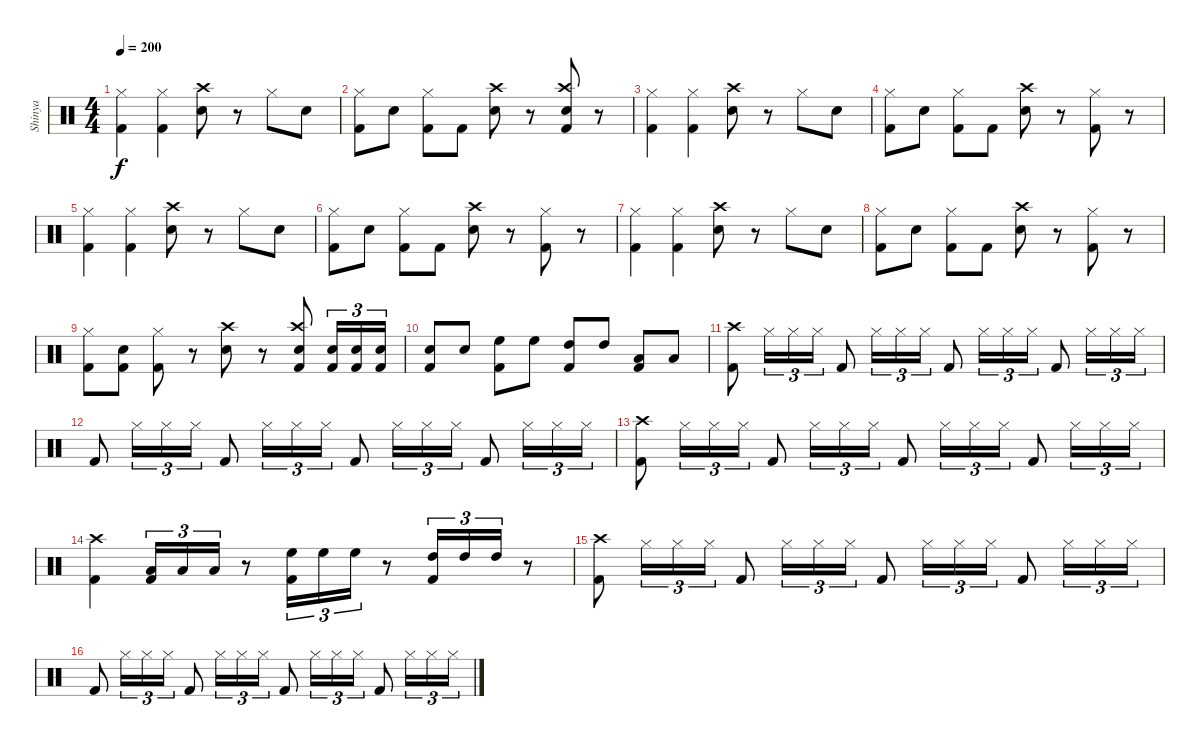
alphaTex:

\track ("Shinya" "Shinya") {instrument percussion}
\staff {score}
\articulation defaults
\ts (4 4)
\tempo 200
\clef neutral
\ks c
("Hi-Hat (closed)" "Kick (hit) 2").4{dy f} ("Hi-Hat (closed)" "Kick (hit) 2").4 ("Crash high (hit)" "Electric Snare (hit)").8 r.8 "Hi-Hat (closed)".8 "Electric Snare (hit)".8 |
("Hi-Hat (closed)" "Kick (hit) 2").8 "Electric Snare (hit)".8 ("Hi-Hat (closed)" "Kick (hit) 2").8 "Kick (hit) 2".8 ("Crash high (hit)" "Electric Snare (hit)").8 r.8 ("Crash high (hit)" "Electric Snare (hit)" "Kick (hit) 2").8 r.8 |
("Hi-Hat (closed)" "Kick (hit) 2").4 ("Hi-Hat (closed)" "Kick (hit) 2").4 ("Crash high (hit)" "Electric Snare (hit)").8 r.8 "Hi-Hat (closed)".8 "Electric Snare (hit)".8 |
("Hi-Hat (closed)" "Kick (hit) 2").8 "Electric Snare (hit)".8 ("Hi-Hat (closed)" "Kick (hit) 2").8 "Kick (hit) 2".8 ("Crash high (hit)" "Electric Snare (hit)").8 r.8 ("Hi-Hat (closed)" "Kick (hit) 2").8 r.8 |
("Hi-Hat (closed)" "Kick (hit) 2").4 ("Hi-Hat (closed)" "Kick (hit) 2").4 ("Crash high (hit)" "Electric Snare (hit)").8 r.8 "Hi-Hat (closed)".8 "Electric Snare (hit)".8 |
("Hi-Hat (closed)" "Kick (hit) 2").8 "Electric Snare (hit)".8 ("Hi-Hat (closed)" "Kick (hit) 2").8 "Kick (hit) 2".8 ("Crash high (hit)" "Electric Snare (hit)").8 r.8 ("Hi-Hat (closed)" "Kick (hit) 2").8 r.8 |
("Hi-Hat (closed)" "Kick (hit) 2").4 ("Hi-Hat (closed)" "Kick (hit) 2").4 ("Crash high (hit)" "Electric Snare (hit)").8 r.8 "Hi-Hat (closed)".8 "Electric Snare (hit)".8 |
("Hi-Hat (closed)" "Kick (hit) 2").8 "Electric Snare (hit)".8 ("Hi-Hat (closed)" "Kick (hit) 2").8 "Kick (hit) 2".8 ("Crash high (hit)" "Electric Snare (hit)").8 r.8 ("Hi-Hat (closed)" "Kick (hit) 2").8 r.8 |
("Hi-Hat (closed)" "Kick (hit) 2").8 ("Electric Snare (hit)" "Kick (hit) 2").8 ("Hi-Hat (closed)" "Kick (hit) 2").8 r.8 ("Crash high (hit)" "Electric Snare (hit)").8 r.8 ("Crash high (hit)" "Electric Snare (hit)" "Kick (hit) 2").8 ("Electric Snare (hit)" "Kick (hit) 2").16{tu (3 2)} ("Electric Snare (hit)" "Kick (hit) 2").16{tu (3 2)} ("Electric Snare (hit)" "Kick (hit) 2").16{tu (3 2)} |
("Electric Snare (hit)" "Kick (hit) 2").8 "Electric Snare (hit)".8 ("High Floor Tom (hit)" "Kick (hit) 2").8 "High Floor Tom (hit)".8 ("High Tom (hit)" "Kick (hit) 2").8 "High Tom (hit)".8 ("Low Tom (hit)" "Kick (hit) 2").8 "Low Tom (hit)".8 |
("Crash high (hit)" "Kick (hit) 2").8 "Hi-Hat (closed)".16{tu (3 2)} "Hi-Hat (closed)".16{tu (3 2)} "Hi-Hat (closed)".16{tu (3 2)} "Kick (hit) 2".8 "Hi-Hat (closed)".16{tu (3 2)} "Hi-Hat (closed)".16{tu (3 2)} "Hi-Hat (closed)".16{tu (3 2)} "Kick (hit) 2".8 "Hi-Hat (closed)".16{tu (3 2)} "Hi-Hat (closed)".16{tu (3 2)} "Hi-Hat (closed)".16{tu (3 2)} "Kick (hit) 2".8 "Hi-Hat (closed)".16{tu (3 2)} "Hi-Hat (closed)".16{tu (3 2)} "Hi-Hat (closed)".16{tu (3 2)} |
"Kick (hit) 2".8 "Hi-Hat (closed)".16{tu (3 2)} "Hi-Hat (closed)".16{tu (3 2)} "Hi-Hat (closed)".16{tu (3 2)} "Kick (hit) 2".8 "Hi-Hat (closed)".16{tu (3 2)} "Hi-Hat (closed)".16{tu (3 2)} "Hi-Hat (closed)".16{tu (3 2)} "Kick (hit) 2".8 "Hi-Hat (closed)".16{tu (3 2)} "Hi-Hat (closed)".16{tu (3 2)} "Hi-Hat (closed)".16{tu (3 2)} "Kick (hit) 2".8 "Hi-Hat (closed)".16{tu (3 2)} "Hi-Hat (closed)".16{tu (3 2)} "Hi-Hat (closed)".16{tu (3 2)} |
("Crash high (hit)" "Kick (hit) 2").8 "Hi-Hat (closed)".16{tu (3 2)} "Hi-Hat (closed)".16{tu (3 2)} "Hi-Hat (closed)".16{tu (3 2)} "Kick (hit) 2".8 "Hi-Hat (closed)".16{tu (3 2)} "Hi-Hat (closed)".16{tu (3 2)} "Hi-Hat (closed)".16{tu (3 2)} "Kick (hit) 2".8 "Hi-Hat (closed)".16{tu (3 2)} "Hi-Hat (closed)".16{tu (3 2)} "Hi-Hat (closed)".16{tu (3 2)} "Kick (hit) 2".8 "Hi-Hat (closed)".16{tu (3 2)} "Hi-Hat (closed)".16{tu (3 2)} "Hi-Hat (closed)".16{tu (3 2)} |
("Crash high (hit)" "Kick (hit) 2").4 ("Low Tom (hit)" "Kick (hit) 2").16{tu (3 2)} "Low Tom (hit)".16{tu (3 2)} "Low Tom (hit)".16{tu (3 2)} r.8 ("High Floor Tom (hit)" "Kick (hit) 2").16{tu (3 2)} "High Floor Tom (hit)".16{tu (3 2)} "High Floor Tom (hit)".16{tu (3 2)} r.8 ("High Tom (hit)" "Kick (hit) 2").16{tu (3 2)} "High Tom (hit)".16{tu (3 2)} "High Tom (hit)".16{tu (3 2)} r.8 |
("Crash high (hit)" "Kick (hit) 2").8 "Hi-Hat (closed)".16{tu (3 2)} "Hi-Hat (closed)".16{tu (3 2)} "Hi-Hat (closed)".16{tu (3 2)} "Kick (hit) 2".8 "Hi-Hat (closed)".16{tu (3 2)} "Hi-Hat (closed)".16{tu (3 2)} "Hi-Hat (closed)".16{tu (3 2)} "Kick (hit) 2".8 "Hi-Hat (closed)".16{tu (3 2)} "Hi-Hat (closed)".16{tu (3 2)} "Hi-Hat (closed)".16{tu (3 2)} "Kick (hit) 2".8 "Hi-Hat (closed)".16{tu (3 2)} "Hi-Hat (closed)".16{tu (3 2)} "Hi-Hat (closed)".16{tu (3 2)} |
"Kick (hit) 2".8 "Hi-Hat (closed)".16{tu (3 2)} "Hi-Hat (closed)".16{tu (3 2)} "Hi-Hat (closed)".16{tu (3 2)} "Kick (hit) 2".8 "Hi-Hat (closed)".16{tu (3 2)} "Hi-Hat (closed)".16{tu (3 2)} "Hi-Hat (closed)".16{tu (3 2)} "Kick (hit) 2".8 "Hi-Hat (closed)".16{tu (3 2)} "Hi-Hat (closed)".16{tu (3 2)} "Hi-Hat (closed)".16{tu (3 2)} "Kick (hit) 2".8 "Hi-Hat (closed)".16{tu (3 2)} "Hi-Hat (closed)".16{tu (3 2)} "Hi-Hat (closed)".16{tu (3 2)}
